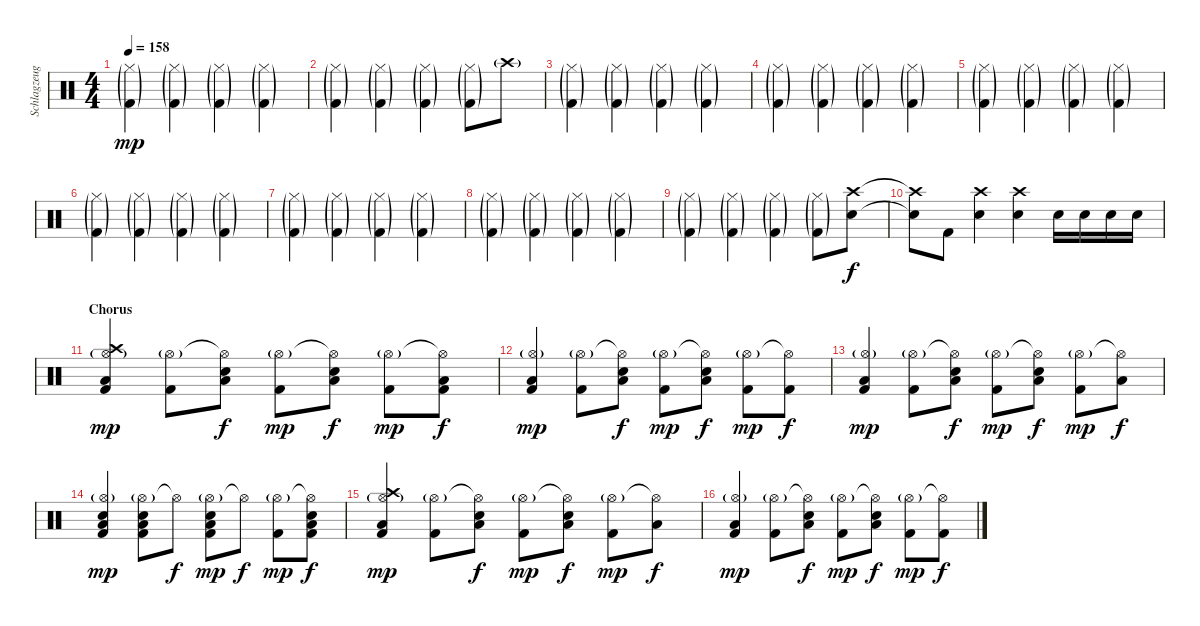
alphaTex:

\track ("Schlagzeug" "Schlagzeug") {instrument percussion}
\staff {score}
\articulation defaults
\ts (4 4)
\tempo 158
\clef neutral
\ks c
("Hi-Hat (closed)"{g} "Kick (hit) 2"{g}).4{dy mp} ("Hi-Hat (closed)"{g} "Kick (hit) 2"{g}).4 ("Hi-Hat (closed)"{g} "Kick (hit) 2"{g}).4 ("Hi-Hat (closed)"{g} "Kick (hit) 2"{g}).4 |
("Hi-Hat (closed)"{g} "Kick (hit) 2"{g}).4 ("Hi-Hat (closed)"{g} "Kick (hit) 2"{g}).4 ("Hi-Hat (closed)"{g} "Kick (hit) 2"{g}).4 ("Hi-Hat (closed)"{g} "Kick (hit) 2"{g}).8 "Crash high (hit)"{g}.8 |
("Hi-Hat (closed)"{g} "Kick (hit) 2"{g}).4 ("Hi-Hat (closed)"{g} "Kick (hit) 2"{g}).4 ("Hi-Hat (closed)"{g} "Kick (hit) 2"{g}).4 ("Hi-Hat (closed)"{g} "Kick (hit) 2"{g}).4 |
("Hi-Hat (closed)"{g} "Kick (hit) 2"{g}).4 ("Hi-Hat (closed)"{g} "Kick (hit) 2"{g}).4 ("Hi-Hat (closed)"{g} "Kick (hit) 2"{g}).4 ("Hi-Hat (closed)"{g} "Kick (hit) 2"{g}).4 |
("Hi-Hat (closed)"{g} "Kick (hit) 2"{g}).4 ("Hi-Hat (closed)"{g} "Kick (hit) 2"{g}).4 ("Hi-Hat (closed)"{g} "Kick (hit) 2"{g}).4 ("Hi-Hat (closed)"{g} "Kick (hit) 2"{g}).4 |
("Hi-Hat (closed)"{g} "Kick (hit) 2"{g}).4 ("Hi-Hat (closed)"{g} "Kick (hit) 2"{g}).4 ("Hi-Hat (closed)"{g} "Kick (hit) 2"{g}).4 ("Hi-Hat (closed)"{g} "Kick (hit) 2"{g}).4 |
("Hi-Hat (closed)"{g} "Kick (hit) 2"{g}).4 ("Hi-Hat (closed)"{g} "Kick (hit) 2"{g}).4 ("Hi-Hat (closed)"{g} "Kick (hit) 2"{g}).4 ("Hi-Hat (closed)"{g} "Kick (hit) 2"{g}).4 |
("Hi-Hat (closed)"{g} "Kick (hit) 2"{g}).4 ("Hi-Hat (closed)"{g} "Kick (hit) 2"{g}).4 ("Hi-Hat (closed)"{g} "Kick (hit) 2"{g}).4 ("Hi-Hat (closed)"{g} "Kick (hit) 2"{g}).4 |
("Hi-Hat (closed)"{g} "Kick (hit) 2"{g}).4 ("Hi-Hat (closed)"{g} "Kick (hit) 2"{g}).4 ("Hi-Hat (closed)"{g} "Kick (hit) 2"{g}).4 ("Hi-Hat (closed)"{g} "Kick (hit) 2"{g}).8 ("Crash high (hit)" "Snare (hit) 2").8{dy f} |
("Crash high (hit)"{t} "Snare (hit) 2"{t}).8 "Kick (hit) 2".8 ("Crash high (hit)" "Snare (hit) 2").4 ("Crash high (hit)" "Snare (hit) 2").4 "Snare (hit) 2".16 "Snare (hit) 2".16 "Snare (hit) 2".16 "Snare (hit) 2".16 |
\section ("" "Chorus")
("Crash high (hit)" "Hi-Hat (open)"{g} "Low Floor Tom (hit)" "Kick (hit) 2").4{dy mp} ("Hi-Hat (open)"{g} "Kick (hit) 2").8 ("Hi-Hat (open)"{t} "Low Floor Tom (hit)" "Electric Snare (hit)").8{dy f} ("Hi-Hat (open)"{g} "Kick (hit) 2").8{dy mp} ("Hi-Hat (open)"{t} "Low Floor Tom (hit)" "Electric Snare (hit)").8{dy f} ("Hi-Hat (open)"{g} "Kick (hit) 2").8{dy mp} ("Hi-Hat (open)"{t} "Low Floor Tom (hit)" "Kick (hit) 2").8{dy f} |
("Hi-Hat (open)"{g} "Low Floor Tom (hit)" "Kick (hit) 2").4{dy mp} ("Hi-Hat (open)"{g} "Kick (hit) 2").8 ("Hi-Hat (open)"{t} "Low Floor Tom (hit)" "Electric Snare (hit)").8{dy f} ("Hi-Hat (open)"{g} "Kick (hit) 2").8{dy mp} ("Hi-Hat (open)"{t} "Low Floor Tom (hit)" "Electric Snare (hit)").8{dy f} ("Hi-Hat (open)"{g} "Kick (hit) 2").8{dy mp} ("Hi-Hat (open)"{t} "Kick (hit) 2").8{dy f} |
("Hi-Hat (open)"{g} "Low Floor Tom (hit)" "Kick (hit) 2").4{dy mp} ("Hi-Hat (open)"{g} "Kick (hit) 2").8 ("Hi-Hat (open)"{t} "Low Floor Tom (hit)" "Electric Snare (hit)").8{dy f} ("Hi-Hat (open)"{g} "Kick (hit) 2").8{dy mp} ("Hi-Hat (open)"{t} "Low Floor Tom (hit)" "Electric Snare (hit)").8{dy f} ("Hi-Hat (open)"{g} "Kick (hit) 2").8{dy mp} ("Hi-Hat (open)"{t} "Low Floor Tom (hit)").8{dy f} |
("Hi-Hat (open)"{g} "Low Floor Tom (hit)" "Electric Snare (hit)" "Kick (hit) 2").4{dy mp} ("Hi-Hat (open)"{g} "Low Floor Tom (hit)" "Electric Snare (hit)" "Kick (hit) 2").8 "Hi-Hat (open)"{t}.8{dy f} ("Hi-Hat (open)"{g} "Low Floor Tom (hit)" "Electric Snare (hit)" "Kick (hit) 2").8{dy mp} "Hi-Hat (open)"{t}.8{dy f} ("Hi-Hat (open)"{g} "Kick (hit) 2").8{dy mp} ("Hi-Hat (open)"{t} "Low Floor Tom (hit)" "Electric Snare (hit)" "Kick (hit) 2").8{dy f} |
("Crash high (hit)" "Hi-Hat (open)"{g} "Low Floor Tom (hit)" "Kick (hit) 2").4{dy mp} ("Hi-Hat (open)"{g} "Kick (hit) 2").8 ("Hi-Hat (open)"{t} "Low Floor Tom (hit)" "Electric Snare (hit)").8{dy f} ("Hi-Hat (open)"{g} "Kick (hit) 2").8{dy mp} ("Hi-Hat (open)"{t} "Low Floor Tom (hit)" "Electric Snare (hit)").8{dy f} ("Hi-Hat (open)"{g} "Kick (hit) 2").8{dy mp} ("Hi-Hat (open)"{t} "Low Floor Tom (hit)").8{dy f} |
("Hi-Hat (open)"{g} "Low Floor Tom (hit)" "Kick (hit) 2").4{dy mp} ("Hi-Hat (open)"{g} "Kick (hit) 2").8 ("Hi-Hat (open)"{t} "Low Floor Tom (hit)" "Electric Snare (hit)").8{dy f} ("Hi-Hat (open)"{g} "Kick (hit) 2").8{dy mp} ("Hi-Hat (open)"{t} "Low Floor Tom (hit)" "Electric Snare (hit)").8{dy f} ("Hi-Hat (open)"{g} "Kick (hit) 2").8{dy mp} ("Hi-Hat (open)"{t} "Kick (hit) 2").8{dy f}
